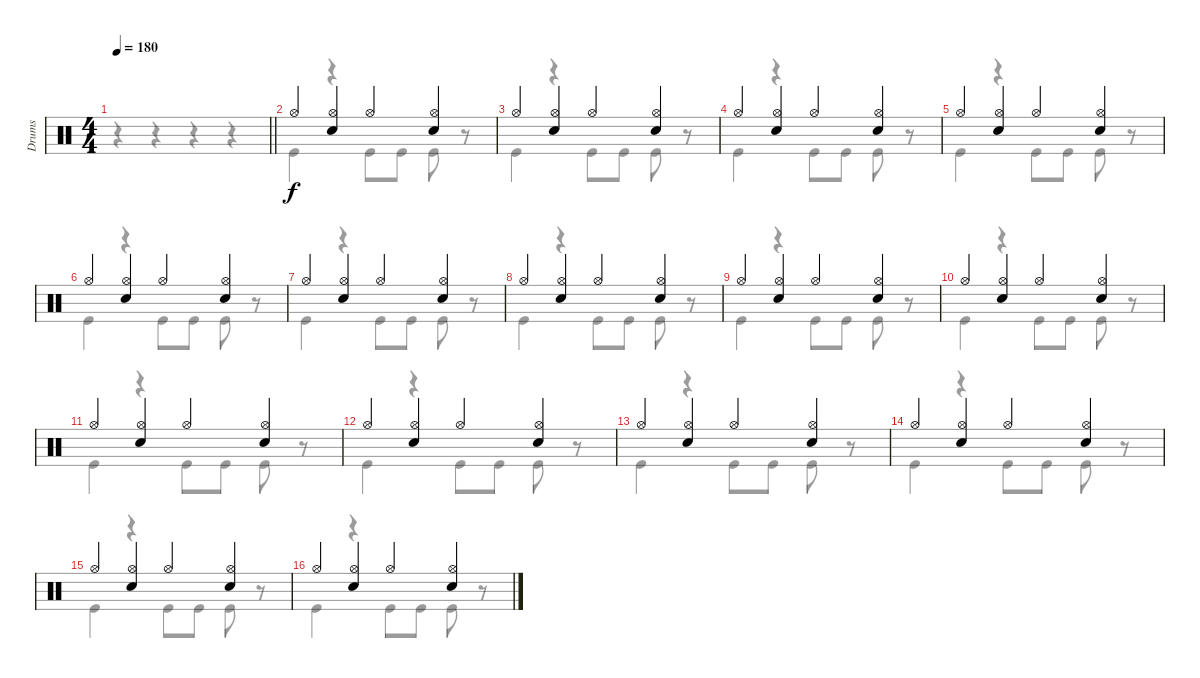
\track ("Drums" "Drums") {instrument percussion}
\staff {score}
\articulation defaults
\voice
\ts (4 4)
\tempo 180
\clef neutral
\barLineRight lightlight
\ks c
|
"Hi-Hat (open)".4 ("Hi-Hat (open)" "Snare (hit) 2").4 "Hi-Hat (open)".4 ("Hi-Hat (open)" "Snare (hit) 2").4 |
"Hi-Hat (open)".4 ("Hi-Hat (open)" "Snare (hit) 2").4 "Hi-Hat (open)".4 ("Hi-Hat (open)" "Snare (hit) 2").4 |
"Hi-Hat (open)".4 ("Hi-Hat (open)" "Snare (hit) 2").4 "Hi-Hat (open)".4 ("Hi-Hat (open)" "Snare (hit) 2").4 |
"Hi-Hat (open)".4 ("Hi-Hat (open)" "Snare (hit) 2").4 "Hi-Hat (open)".4 ("Hi-Hat (open)" "Snare (hit) 2").4 |
"Hi-Hat (open)".4 ("Hi-Hat (open)" "Snare (hit) 2").4 "Hi-Hat (open)".4 ("Hi-Hat (open)" "Snare (hit) 2").4 |
"Hi-Hat (open)".4 ("Hi-Hat (open)" "Snare (hit) 2").4 "Hi-Hat (open)".4 ("Hi-Hat (open)" "Snare (hit) 2").4 |
"Hi-Hat (open)".4 ("Hi-Hat (open)" "Snare (hit) 2").4 "Hi-Hat (open)".4 ("Hi-Hat (open)" "Snare (hit) 2").4 |
"Hi-Hat (open)".4 ("Hi-Hat (open)" "Snare (hit) 2").4 "Hi-Hat (open)".4 ("Hi-Hat (open)" "Snare (hit) 2").4 |
"Hi-Hat (open)".4 ("Hi-Hat (open)" "Snare (hit) 2").4 "Hi-Hat (open)".4 ("Hi-Hat (open)" "Snare (hit) 2").4 |
"Hi-Hat (open)".4 ("Hi-Hat (open)" "Snare (hit) 2").4 "Hi-Hat (open)".4 ("Hi-Hat (open)" "Snare (hit) 2").4 |
"Hi-Hat (open)".4 ("Hi-Hat (open)" "Snare (hit) 2").4 "Hi-Hat (open)".4 ("Hi-Hat (open)" "Snare (hit) 2").4 |
"Hi-Hat (open)".4 ("Hi-Hat (open)" "Snare (hit) 2").4 "Hi-Hat (open)".4 ("Hi-Hat (open)" "Snare (hit) 2").4 |
"Hi-Hat (open)".4 ("Hi-Hat (open)" "Snare (hit) 2").4 "Hi-Hat (open)".4 ("Hi-Hat (open)" "Snare (hit) 2").4 |
"Hi-Hat (open)".4 ("Hi-Hat (open)" "Snare (hit) 2").4 "Hi-Hat (open)".4 ("Hi-Hat (open)" "Snare (hit) 2").4 |
"Hi-Hat (open)".4 ("Hi-Hat (open)" "Snare (hit) 2").4 "Hi-Hat (open)".4 ("Hi-Hat (open)" "Snare (hit) 2").4
\voice
\clef neutral
\ottava regular
\simile none
\barLineRight lightlight
\ks c
r.4{dy f} r.4 r.4 r.4 |
"Kick (hit)".4 r.4 "Kick (hit)".8 "Kick (hit)".8 "Kick (hit)".8 r.8 |
"Kick (hit)".4 r.4 "Kick (hit)".8 "Kick (hit)".8 "Kick (hit)".8 r.8 |
"Kick (hit)".4 r.4 "Kick (hit)".8 "Kick (hit)".8 "Kick (hit)".8 r.8 |
"Kick (hit)".4 r.4 "Kick (hit)".8 "Kick (hit)".8 "Kick (hit)".8 r.8 |
"Kick (hit)".4 r.4 "Kick (hit)".8 "Kick (hit)".8 "Kick (hit)".8 r.8 |
"Kick (hit)".4 r.4 "Kick (hit)".8 "Kick (hit)".8 "Kick (hit)".8 r.8 |
"Kick (hit)".4 r.4 "Kick (hit)".8 "Kick (hit)".8 "Kick (hit)".8 r.8 |
"Kick (hit)".4 r.4 "Kick (hit)".8 "Kick (hit)".8 "Kick (hit)".8 r.8 |
"Kick (hit)".4 r.4 "Kick (hit)".8 "Kick (hit)".8 "Kick (hit)".8 r.8 |
"Kick (hit)".4 r.4 "Kick (hit)".8 "Kick (hit)".8 "Kick (hit)".8 r.8 |
"Kick (hit)".4 r.4 "Kick (hit)".8 "Kick (hit)".8 "Kick (hit)".8 r.8 |
"Kick (hit)".4 r.4 "Kick (hit)".8 "Kick (hit)".8 "Kick (hit)".8 r.8 |
"Kick (hit)".4 r.4 "Kick (hit)".8 "Kick (hit)".8 "Kick (hit)".8 r.8 |
"Kick (hit)".4 r.4 "Kick (hit)".8 "Kick (hit)".8 "Kick (hit)".8 r.8 |
"Kick (hit)".4 r.4 "Kick (hit)".8 "Kick (hit)".8 "Kick (hit)".8 r.8
